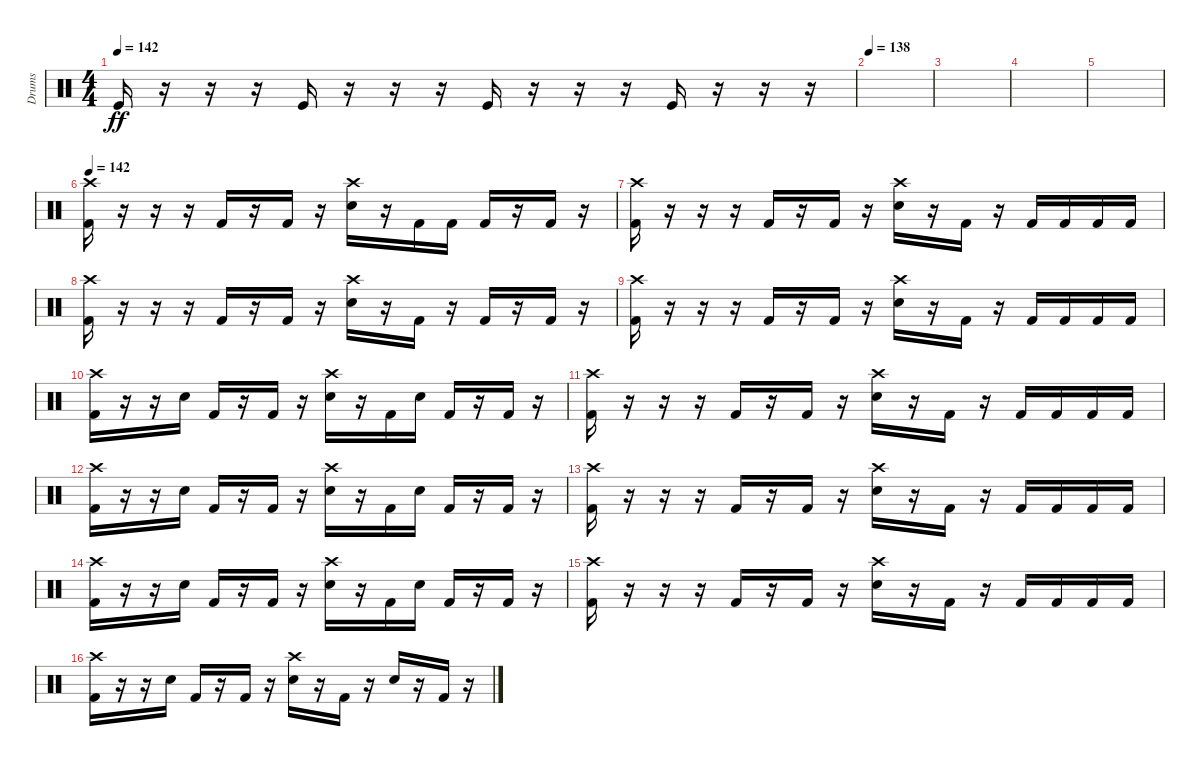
\track ("Drums" "Drums") {instrument percussion}
\staff {score}
\articulation defaults
\ts (4 4)
\tempo 142
\clef neutral
\ks c "Kick (hit)".16{dy ff}
r.16 r.16 r.16 "Kick (hit)".16 r.16 r.16 r.16 "Kick (hit)".16 r.16 r.16 r.16 "Kick (hit)".16 r.16 r.16 r.16 |
\tempo 138
|
|
|
|
\tempo 142
("Crash high (hit)" "Kick (hit) 2").16 r.16 r.16 r.16 "Kick (hit) 2".16 r.16 "Kick (hit) 2".16 r.16 ("Crash high (hit)" "Electric Snare (hit)").16 r.16 "Kick (hit) 2".16 "Kick (hit) 2".16 "Kick (hit) 2".16 r.16 "Kick (hit) 2".16 r.16 |
("Crash high (hit)" "Kick (hit) 2").16 r.16 r.16 r.16 "Kick (hit) 2".16 r.16 "Kick (hit) 2".16 r.16 ("Crash high (hit)" "Electric Snare (hit)").16 r.16 "Kick (hit) 2".16 r.16 "Kick (hit) 2".16 "Kick (hit) 2".16 "Kick (hit) 2".16 "Kick (hit) 2".16 |
("Crash high (hit)" "Kick (hit) 2").16 r.16 r.16 r.16 "Kick (hit) 2".16 r.16 "Kick (hit) 2".16 r.16 ("Crash high (hit)" "Electric Snare (hit)").16 r.16 "Kick (hit) 2".16 r.16 "Kick (hit) 2".16 r.16 "Kick (hit) 2".16 r.16 |
("Crash high (hit)" "Kick (hit) 2").16 r.16 r.16 r.16 "Kick (hit) 2".16 r.16 "Kick (hit) 2".16 r.16 ("Crash high (hit)" "Electric Snare (hit)").16 r.16 "Kick (hit) 2".16 r.16 "Kick (hit) 2".16 "Kick (hit) 2".16 "Kick (hit) 2".16 "Kick (hit) 2".16 |
("Crash high (hit)" "Kick (hit) 2").16 r.16 r.16 "Electric Snare (hit)".16 "Kick (hit) 2".16 r.16 "Kick (hit) 2".16 r.16 ("Crash high (hit)" "Electric Snare (hit)").16 r.16 "Kick (hit) 2".16 "Electric Snare (hit)".16 "Kick (hit) 2".16 r.16 "Kick (hit) 2".16 r.16 |
("Crash high (hit)" "Kick (hit) 2").16 r.16 r.16 r.16 "Kick (hit) 2".16 r.16 "Kick (hit) 2".16 r.16 ("Crash high (hit)" "Electric Snare (hit)").16 r.16 "Kick (hit) 2".16 r.16 "Kick (hit) 2".16 "Kick (hit) 2".16 "Kick (hit) 2".16 "Kick (hit) 2".16 |
("Crash high (hit)" "Kick (hit) 2").16 r.16 r.16 "Electric Snare (hit)".16 "Kick (hit) 2".16 r.16 "Kick (hit) 2".16 r.16 ("Crash high (hit)" "Electric Snare (hit)").16 r.16 "Kick (hit) 2".16 "Electric Snare (hit)".16 "Kick (hit) 2".16 r.16 "Kick (hit) 2".16 r.16 |
("Crash high (hit)" "Kick (hit) 2").16 r.16 r.16 r.16 "Kick (hit) 2".16 r.16 "Kick (hit) 2".16 r.16 ("Crash high (hit)" "Electric Snare (hit)").16 r.16 "Kick (hit) 2".16 r.16 "Kick (hit) 2".16 "Kick (hit) 2".16 "Kick (hit) 2".16 "Kick (hit) 2".16 |
("Crash high (hit)" "Kick (hit) 2").16 r.16 r.16 "Electric Snare (hit)".16 "Kick (hit) 2".16 r.16 "Kick (hit) 2".16 r.16 ("Crash high (hit)" "Electric Snare (hit)").16 r.16 "Kick (hit) 2".16 "Electric Snare (hit)".16 "Kick (hit) 2".16 r.16 "Kick (hit) 2".16 r.16 |
("Crash high (hit)" "Kick (hit) 2").16 r.16 r.16 r.16 "Kick (hit) 2".16 r.16 "Kick (hit) 2".16 r.16 ("Crash high (hit)" "Electric Snare (hit)").16 r.16 "Kick (hit) 2".16 r.16 "Kick (hit) 2".16 "Kick (hit) 2".16 "Kick (hit) 2".16 "Kick (hit) 2".16 |
("Crash high (hit)" "Kick (hit) 2").16 r.16 r.16 "Electric Snare (hit)".16 "Kick (hit) 2".16 r.16 "Kick (hit) 2".16 r.16 ("Crash high (hit)" "Electric Snare (hit)").16 r.16 "Kick (hit) 2".16 r.16 "Electric Snare (hit)".16 r.16 "Kick (hit) 2".16 r.16
